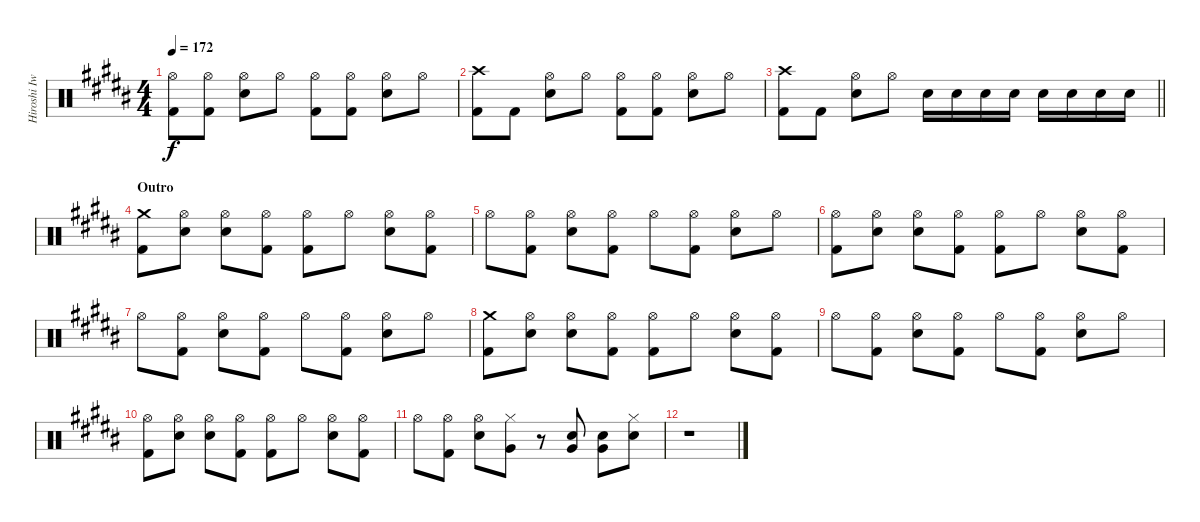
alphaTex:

\track ("Hiroshi Iwasaki - Drums" "Hiroshi Iw") {instrument percussion}
\staff {score}
\articulation defaults
\ts (4 4)
\tempo 172
\clef neutral
\ks b
("Hi-Hat (open)" "Kick (hit) 2").8{dy f} ("Hi-Hat (open)" "Kick (hit) 2").8 ("Snare (hit) 2" "Hi-Hat (open)").8 "Hi-Hat (open)".8 ("Hi-Hat (open)" "Kick (hit) 2").8 ("Hi-Hat (open)" "Kick (hit) 2").8 ("Snare (hit) 2" "Hi-Hat (open)").8 "Hi-Hat (open)".8 |
("Crash high (hit)" "Kick (hit) 2").8 "Kick (hit) 2".8 ("Snare (hit) 2" "Hi-Hat (open)").8 "Hi-Hat (open)".8 ("Hi-Hat (open)" "Kick (hit) 2").8 ("Hi-Hat (open)" "Kick (hit) 2").8 ("Snare (hit) 2" "Hi-Hat (open)").8 "Hi-Hat (open)".8 |
\barLineRight lightlight
("Crash high (hit)" "Kick (hit) 2").8 "Kick (hit) 2".8 ("Snare (hit) 2" "Hi-Hat (open)").8 "Hi-Hat (open)".8 "Snare (hit) 2".16 "Snare (hit) 2".16 "Snare (hit) 2".16 "Snare (hit) 2".16 "Snare (hit) 2".16 "Snare (hit) 2".16 "Snare (hit) 2".16 "Snare (hit) 2".16 |
\section ("" "Outro")
("Crash medium (hit)" "Kick (hit) 2").8 ("Snare (hit) 2" "Hi-Hat (open)").8 ("Snare (hit) 2" "Hi-Hat (open)").8 ("Hi-Hat (open)" "Kick (hit) 2").8 ("Hi-Hat (open)" "Kick (hit) 2").8 "Hi-Hat (open)".8 ("Snare (hit) 2" "Hi-Hat (open)").8 ("Hi-Hat (open)" "Kick (hit) 2").8 |
"Hi-Hat (open)".8 ("Hi-Hat (open)" "Kick (hit) 2").8 ("Snare (hit) 2" "Hi-Hat (open)").8 ("Hi-Hat (open)" "Kick (hit) 2").8 "Hi-Hat (open)".8 ("Hi-Hat (open)" "Kick (hit) 2").8 ("Snare (hit) 2" "Hi-Hat (open)").8 "Hi-Hat (open)".8 |
("Hi-Hat (open)" "Kick (hit) 2").8 ("Snare (hit) 2" "Hi-Hat (open)").8 ("Snare (hit) 2" "Hi-Hat (open)").8 ("Hi-Hat (open)" "Kick (hit) 2").8 ("Hi-Hat (open)" "Kick (hit) 2").8 "Hi-Hat (open)".8 ("Snare (hit) 2" "Hi-Hat (open)").8 ("Hi-Hat (open)" "Kick (hit) 2").8 |
"Hi-Hat (open)".8 ("Hi-Hat (open)" "Kick (hit) 2").8 ("Snare (hit) 2" "Hi-Hat (open)").8 ("Hi-Hat (open)" "Kick (hit) 2").8 "Hi-Hat (open)".8 ("Hi-Hat (open)" "Kick (hit) 2").8 ("Snare (hit) 2" "Hi-Hat (open)").8 "Hi-Hat (open)".8 |
("Crash medium (hit)" "Kick (hit) 2").8 ("Snare (hit) 2" "Hi-Hat (open)").8 ("Snare (hit) 2" "Hi-Hat (open)").8 ("Hi-Hat (open)" "Kick (hit) 2").8 ("Hi-Hat (open)" "Kick (hit) 2").8 "Hi-Hat (open)".8 ("Snare (hit) 2" "Hi-Hat (open)").8 ("Hi-Hat (open)" "Kick (hit) 2").8 |
"Hi-Hat (open)".8 ("Hi-Hat (open)" "Kick (hit) 2").8 ("Snare (hit) 2" "Hi-Hat (open)").8 ("Hi-Hat (open)" "Kick (hit) 2").8 "Hi-Hat (open)".8 ("Hi-Hat (open)" "Kick (hit) 2").8 ("Snare (hit) 2" "Hi-Hat (open)").8 "Hi-Hat (open)".8 |
("Hi-Hat (open)" "Kick (hit) 2").8 ("Snare (hit) 2" "Hi-Hat (open)").8 ("Snare (hit) 2" "Hi-Hat (open)").8 ("Hi-Hat (open)" "Kick (hit) 2").8 ("Hi-Hat (open)" "Kick (hit) 2").8 "Hi-Hat (open)".8 ("Snare (hit) 2" "Hi-Hat (open)").8 ("Hi-Hat (open)" "Kick (hit) 2").8 |
"Hi-Hat (open)".8 ("Hi-Hat (open)" "Kick (hit) 2").8 ("Snare (hit) 2" "Hi-Hat (open)").8 ("Hi-Hat (closed)" "Very Low Tom (hit)").8 r.8 ("Snare (hit) 2" "Very Low Tom (hit)").8 ("Snare (hit) 2" "Very Low Tom (hit)").8 ("Snare (hit) 2" "Hi-Hat (closed)").8 |
r.1
